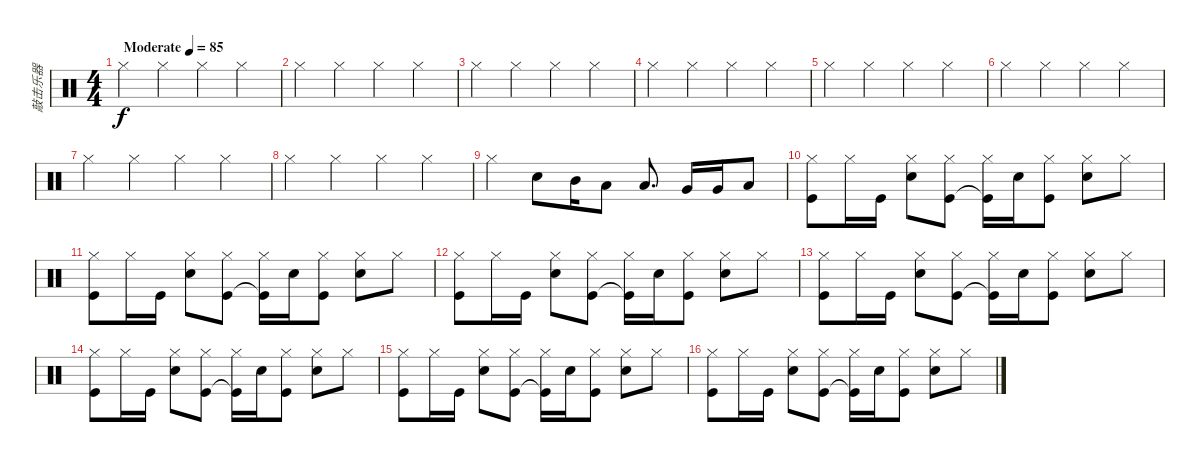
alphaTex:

\track ("敲击乐器" "敲击乐器") {instrument percussion}
\staff {score}
\articulation defaults
\ts (4 4)
\tempo (85 "Moderate")
\clef neutral
\ks c "Hi-Hat (closed)".4{dy f} "Hi-Hat (closed)".4 "Hi-Hat (closed)".4 "Hi-Hat (closed)".4
|
"Hi-Hat (closed)".4 "Hi-Hat (closed)".4 "Hi-Hat (closed)".4 "Hi-Hat (closed)".4 |
"Hi-Hat (closed)".4 "Hi-Hat (closed)".4 "Hi-Hat (closed)".4 "Hi-Hat (closed)".4 |
"Hi-Hat (closed)".4 "Hi-Hat (closed)".4 "Hi-Hat (closed)".4 "Hi-Hat (closed)".4 |
"Hi-Hat (closed)".4 "Hi-Hat (closed)".4 "Hi-Hat (closed)".4 "Hi-Hat (closed)".4 |
"Hi-Hat (closed)".4 "Hi-Hat (closed)".4 "Hi-Hat (closed)".4 "Hi-Hat (closed)".4 |
"Hi-Hat (closed)".4 "Hi-Hat (closed)".4 "Hi-Hat (closed)".4 "Hi-Hat (closed)".4 |
"Hi-Hat (closed)".4 "Hi-Hat (closed)".4 "Hi-Hat (closed)".4 "Hi-Hat (closed)".4 |
"Hi-Hat (closed)".4 "Snare (hit) 2".8 "Mid Tom (hit)".16 "Low Tom (hit)".8 "Low Tom (hit)".8{d} "Very Low Tom (hit)".16 "Very Low Tom (hit)".16 "Low Floor Tom (hit)".8 |
("Hi-Hat (closed)" "Kick (hit)").8 "Hi-Hat (closed)".16 "Kick (hit)".16 ("Hi-Hat (closed)" "Snare (hit) 2").8 ("Hi-Hat (closed)" "Kick (hit)").8 ("Hi-Hat (closed)" "Kick (hit)"{t}).16 "Snare (hit) 2".16 ("Hi-Hat (closed)" "Kick (hit)").8 ("Hi-Hat (closed)" "Snare (hit) 2").8 "Hi-Hat (closed)".8 |
("Hi-Hat (closed)" "Kick (hit)").8 "Hi-Hat (closed)".16 "Kick (hit)".16 ("Hi-Hat (closed)" "Snare (hit) 2").8 ("Hi-Hat (closed)" "Kick (hit)").8 ("Hi-Hat (closed)" "Kick (hit)"{t}).16 "Snare (hit) 2".16 ("Hi-Hat (closed)" "Kick (hit)").8 ("Hi-Hat (closed)" "Snare (hit) 2").8 "Hi-Hat (closed)".8 |
("Hi-Hat (closed)" "Kick (hit)").8 "Hi-Hat (closed)".16 "Kick (hit)".16 ("Hi-Hat (closed)" "Snare (hit) 2").8 ("Hi-Hat (closed)" "Kick (hit)").8 ("Hi-Hat (closed)" "Kick (hit)"{t}).16 "Snare (hit) 2".16 ("Hi-Hat (closed)" "Kick (hit)").8 ("Hi-Hat (closed)" "Snare (hit) 2").8 "Hi-Hat (closed)".8 |
("Hi-Hat (closed)" "Kick (hit)").8 "Hi-Hat (closed)".16 "Kick (hit)".16 ("Hi-Hat (closed)" "Snare (hit) 2").8 ("Hi-Hat (closed)" "Kick (hit)").8 ("Hi-Hat (closed)" "Kick (hit)"{t}).16 "Snare (hit) 2".16 ("Hi-Hat (closed)" "Kick (hit)").8 ("Hi-Hat (closed)" "Snare (hit) 2").8 "Hi-Hat (closed)".8 |
("Hi-Hat (closed)" "Kick (hit)").8 "Hi-Hat (closed)".16 "Kick (hit)".16 ("Hi-Hat (closed)" "Snare (hit) 2").8 ("Hi-Hat (closed)" "Kick (hit)").8 ("Hi-Hat (closed)" "Kick (hit)"{t}).16 "Snare (hit) 2".16 ("Hi-Hat (closed)" "Kick (hit)").8 ("Hi-Hat (closed)" "Snare (hit) 2").8 "Hi-Hat (closed)".8 |
("Hi-Hat (closed)" "Kick (hit)").8 "Hi-Hat (closed)".16 "Kick (hit)".16 ("Hi-Hat (closed)" "Snare (hit) 2").8 ("Hi-Hat (closed)" "Kick (hit)").8 ("Hi-Hat (closed)" "Kick (hit)"{t}).16 "Snare (hit) 2".16 ("Hi-Hat (closed)" "Kick (hit)").8 ("Hi-Hat (closed)" "Snare (hit) 2").8 "Hi-Hat (closed)".8 |
("Hi-Hat (closed)" "Kick (hit)").8 "Hi-Hat (closed)".16 "Kick (hit)".16 ("Hi-Hat (closed)" "Snare (hit) 2").8 ("Hi-Hat (closed)" "Kick (hit)").8 ("Hi-Hat (closed)" "Kick (hit)"{t}).16 "Snare (hit) 2".16 ("Hi-Hat (closed)" "Kick (hit)").8 ("Hi-Hat (closed)" "Snare (hit) 2").8 "Hi-Hat (closed)".8
